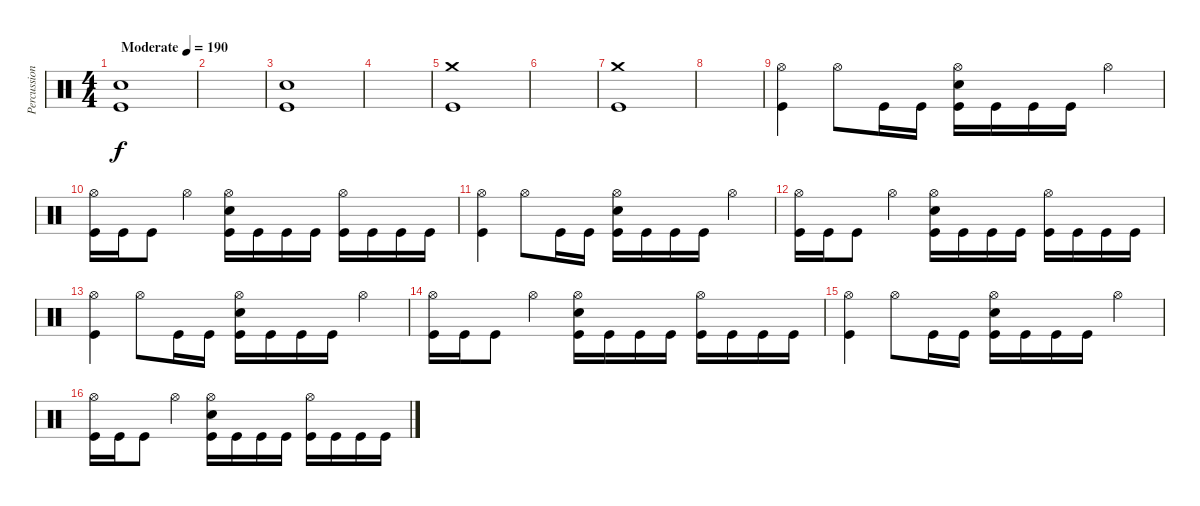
\track ("Percussion" "Percussion") {instrument percussion}
\staff {score}
\articulation defaults
\ts (4 4)
\tempo (190 "Moderate")
\clef neutral
\ks c
("Snare (hit) 2" "Kick (hit)").1{dy f} |
|
("Snare (hit) 2" "Kick (hit)").1 |
|
("Crash medium (hit)" "Kick (hit)").1 |
|
("Crash medium (hit)" "Kick (hit)").1 |
|
("Hi-Hat (open)" "Kick (hit)").4 "Hi-Hat (open)".8 "Kick (hit)".16 "Kick (hit)".16 ("Hi-Hat (open)" "Snare (hit) 2" "Kick (hit)").16 "Kick (hit)".16 "Kick (hit)".16 "Kick (hit)".16 "Hi-Hat (open)".4 |
("Hi-Hat (open)" "Kick (hit)").16 "Kick (hit)".16 "Kick (hit)".8 "Hi-Hat (open)".4 ("Hi-Hat (open)" "Snare (hit) 2" "Kick (hit)").16 "Kick (hit)".16 "Kick (hit)".16 "Kick (hit)".16 ("Hi-Hat (open)" "Kick (hit)").16 "Kick (hit)".16 "Kick (hit)".16 "Kick (hit)".16 |
("Hi-Hat (open)" "Kick (hit)").4 "Hi-Hat (open)".8 "Kick (hit)".16 "Kick (hit)".16 ("Hi-Hat (open)" "Snare (hit) 2" "Kick (hit)").16 "Kick (hit)".16 "Kick (hit)".16 "Kick (hit)".16 "Hi-Hat (open)".4 |
("Hi-Hat (open)" "Kick (hit)").16 "Kick (hit)".16 "Kick (hit)".8 "Hi-Hat (open)".4 ("Hi-Hat (open)" "Snare (hit) 2" "Kick (hit)").16 "Kick (hit)".16 "Kick (hit)".16 "Kick (hit)".16 ("Hi-Hat (open)" "Kick (hit)").16 "Kick (hit)".16 "Kick (hit)".16 "Kick (hit)".16 |
("Hi-Hat (open)" "Kick (hit)").4 "Hi-Hat (open)".8 "Kick (hit)".16 "Kick (hit)".16 ("Hi-Hat (open)" "Snare (hit) 2" "Kick (hit)").16 "Kick (hit)".16 "Kick (hit)".16 "Kick (hit)".16 "Hi-Hat (open)".4 |
("Hi-Hat (open)" "Kick (hit)").16 "Kick (hit)".16 "Kick (hit)".8 "Hi-Hat (open)".4 ("Hi-Hat (open)" "Snare (hit) 2" "Kick (hit)").16 "Kick (hit)".16 "Kick (hit)".16 "Kick (hit)".16 ("Hi-Hat (open)" "Kick (hit)").16 "Kick (hit)".16 "Kick (hit)".16 "Kick (hit)".16 |
("Hi-Hat (open)" "Kick (hit)").4 "Hi-Hat (open)".8 "Kick (hit)".16 "Kick (hit)".16 ("Hi-Hat (open)" "Snare (hit) 2" "Kick (hit)").16 "Kick (hit)".16 "Kick (hit)".16 "Kick (hit)".16 "Hi-Hat (open)".4 |
("Hi-Hat (open)" "Kick (hit)").16 "Kick (hit)".16 "Kick (hit)".8 "Hi-Hat (open)".4 ("Hi-Hat (open)" "Snare (hit) 2" "Kick (hit)").16 "Kick (hit)".16 "Kick (hit)".16 "Kick (hit)".16 ("Hi-Hat (open)" "Kick (hit)").16 "Kick (hit)".16 "Kick (hit)".16 "Kick (hit)".16
